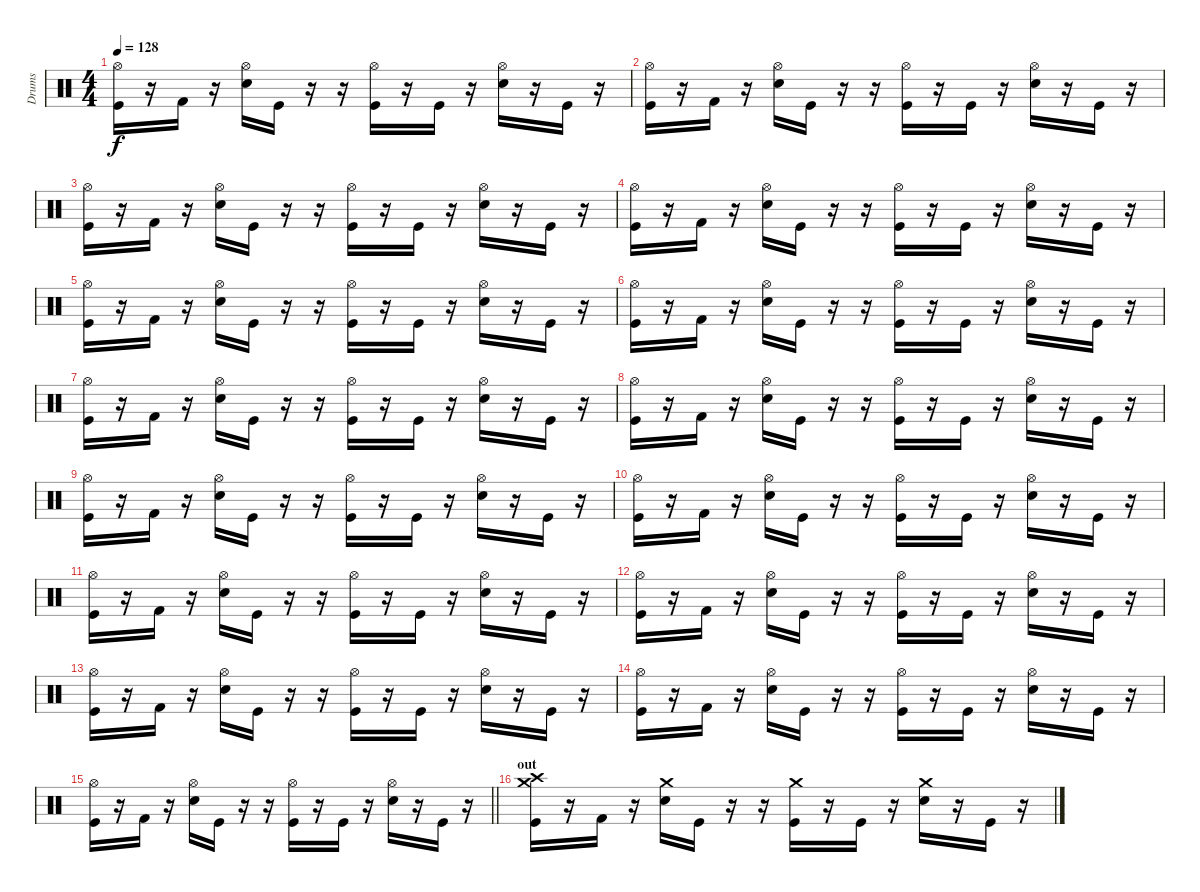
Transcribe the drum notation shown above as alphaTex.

\track ("Drums" "Drums") {instrument percussion}
\staff {score}
\articulation defaults
\ts (4 4)
\tempo 128
\clef neutral
\ks c
("Hi-Hat (open)" "Kick (hit)").16{dy f} r.16 "Kick (hit) 2".16 r.16 ("Hi-Hat (open)" "Electric Snare (hit)").16 "Kick (hit)".16 r.16 r.16 ("Hi-Hat (open)" "Kick (hit)").16 r.16 "Kick (hit)".16 r.16 ("Hi-Hat (open)" "Electric Snare (hit)").16 r.16 "Kick (hit)".16 r.16 |
("Hi-Hat (open)" "Kick (hit)").16 r.16 "Kick (hit) 2".16 r.16 ("Hi-Hat (open)" "Electric Snare (hit)").16 "Kick (hit)".16 r.16 r.16 ("Hi-Hat (open)" "Kick (hit)").16 r.16 "Kick (hit)".16 r.16 ("Hi-Hat (open)" "Electric Snare (hit)").16 r.16 "Kick (hit)".16 r.16 |
("Hi-Hat (open)" "Kick (hit)").16 r.16 "Kick (hit) 2".16 r.16 ("Hi-Hat (open)" "Electric Snare (hit)").16 "Kick (hit)".16 r.16 r.16 ("Hi-Hat (open)" "Kick (hit)").16 r.16 "Kick (hit)".16 r.16 ("Hi-Hat (open)" "Electric Snare (hit)").16 r.16 "Kick (hit)".16 r.16 |
("Hi-Hat (open)" "Kick (hit)").16 r.16 "Kick (hit) 2".16 r.16 ("Hi-Hat (open)" "Electric Snare (hit)").16 "Kick (hit)".16 r.16 r.16 ("Hi-Hat (open)" "Kick (hit)").16 r.16 "Kick (hit)".16 r.16 ("Hi-Hat (open)" "Electric Snare (hit)").16 r.16 "Kick (hit)".16 r.16 |
("Hi-Hat (open)" "Kick (hit)").16 r.16 "Kick (hit) 2".16 r.16 ("Hi-Hat (open)" "Electric Snare (hit)").16 "Kick (hit)".16 r.16 r.16 ("Hi-Hat (open)" "Kick (hit)").16 r.16 "Kick (hit)".16 r.16 ("Hi-Hat (open)" "Electric Snare (hit)").16 r.16 "Kick (hit)".16 r.16 |
("Hi-Hat (open)" "Kick (hit)").16 r.16 "Kick (hit) 2".16 r.16 ("Hi-Hat (open)" "Electric Snare (hit)").16 "Kick (hit)".16 r.16 r.16 ("Hi-Hat (open)" "Kick (hit)").16 r.16 "Kick (hit)".16 r.16 ("Hi-Hat (open)" "Electric Snare (hit)").16 r.16 "Kick (hit)".16 r.16 |
("Hi-Hat (open)" "Kick (hit)").16 r.16 "Kick (hit) 2".16 r.16 ("Hi-Hat (open)" "Electric Snare (hit)").16 "Kick (hit)".16 r.16 r.16 ("Hi-Hat (open)" "Kick (hit)").16 r.16 "Kick (hit)".16 r.16 ("Hi-Hat (open)" "Electric Snare (hit)").16 r.16 "Kick (hit)".16 r.16 |
("Hi-Hat (open)" "Kick (hit)").16 r.16 "Kick (hit) 2".16 r.16 ("Hi-Hat (open)" "Electric Snare (hit)").16 "Kick (hit)".16 r.16 r.16 ("Hi-Hat (open)" "Kick (hit)").16 r.16 "Kick (hit)".16 r.16 ("Hi-Hat (open)" "Electric Snare (hit)").16 r.16 "Kick (hit)".16 r.16 |
("Hi-Hat (open)" "Kick (hit)").16 r.16 "Kick (hit) 2".16 r.16 ("Hi-Hat (open)" "Electric Snare (hit)").16 "Kick (hit)".16 r.16 r.16 ("Hi-Hat (open)" "Kick (hit)").16 r.16 "Kick (hit)".16 r.16 ("Hi-Hat (open)" "Electric Snare (hit)").16 r.16 "Kick (hit)".16 r.16 |
("Hi-Hat (open)" "Kick (hit)").16 r.16 "Kick (hit) 2".16 r.16 ("Hi-Hat (open)" "Electric Snare (hit)").16 "Kick (hit)".16 r.16 r.16 ("Hi-Hat (open)" "Kick (hit)").16 r.16 "Kick (hit)".16 r.16 ("Hi-Hat (open)" "Electric Snare (hit)").16 r.16 "Kick (hit)".16 r.16 |
("Hi-Hat (open)" "Kick (hit)").16 r.16 "Kick (hit) 2".16 r.16 ("Hi-Hat (open)" "Electric Snare (hit)").16 "Kick (hit)".16 r.16 r.16 ("Hi-Hat (open)" "Kick (hit)").16 r.16 "Kick (hit)".16 r.16 ("Hi-Hat (open)" "Electric Snare (hit)").16 r.16 "Kick (hit)".16 r.16 |
("Hi-Hat (open)" "Kick (hit)").16 r.16 "Kick (hit) 2".16 r.16 ("Hi-Hat (open)" "Electric Snare (hit)").16 "Kick (hit)".16 r.16 r.16 ("Hi-Hat (open)" "Kick (hit)").16 r.16 "Kick (hit)".16 r.16 ("Hi-Hat (open)" "Electric Snare (hit)").16 r.16 "Kick (hit)".16 r.16 |
("Hi-Hat (open)" "Kick (hit)").16 r.16 "Kick (hit) 2".16 r.16 ("Hi-Hat (open)" "Electric Snare (hit)").16 "Kick (hit)".16 r.16 r.16 ("Hi-Hat (open)" "Kick (hit)").16 r.16 "Kick (hit)".16 r.16 ("Hi-Hat (open)" "Electric Snare (hit)").16 r.16 "Kick (hit)".16 r.16 |
("Hi-Hat (open)" "Kick (hit)").16 r.16 "Kick (hit) 2".16 r.16 ("Hi-Hat (open)" "Electric Snare (hit)").16 "Kick (hit)".16 r.16 r.16 ("Hi-Hat (open)" "Kick (hit)").16 r.16 "Kick (hit)".16 r.16 ("Hi-Hat (open)" "Electric Snare (hit)").16 r.16 "Kick (hit)".16 r.16 |
\barLineRight lightlight
("Hi-Hat (open)" "Kick (hit)").16 r.16 "Kick (hit) 2".16 r.16 ("Hi-Hat (open)" "Electric Snare (hit)").16 "Kick (hit)".16 r.16 r.16 ("Hi-Hat (open)" "Kick (hit)").16 r.16 "Kick (hit)".16 r.16 ("Hi-Hat (open)" "Electric Snare (hit)").16 r.16 "Kick (hit)".16 r.16 |
\section ("" "out")
("Crash medium (hit)" "Crash high (hit)" "Kick (hit)").16 r.16 "Kick (hit) 2".16 r.16 ("Crash medium (hit)" "Electric Snare (hit)").16 "Kick (hit)".16 r.16 r.16 ("Crash medium (hit)" "Kick (hit)").16 r.16 "Kick (hit)".16 r.16 ("Crash medium (hit)" "Electric Snare (hit)").16 r.16 "Kick (hit)".16 r.16
